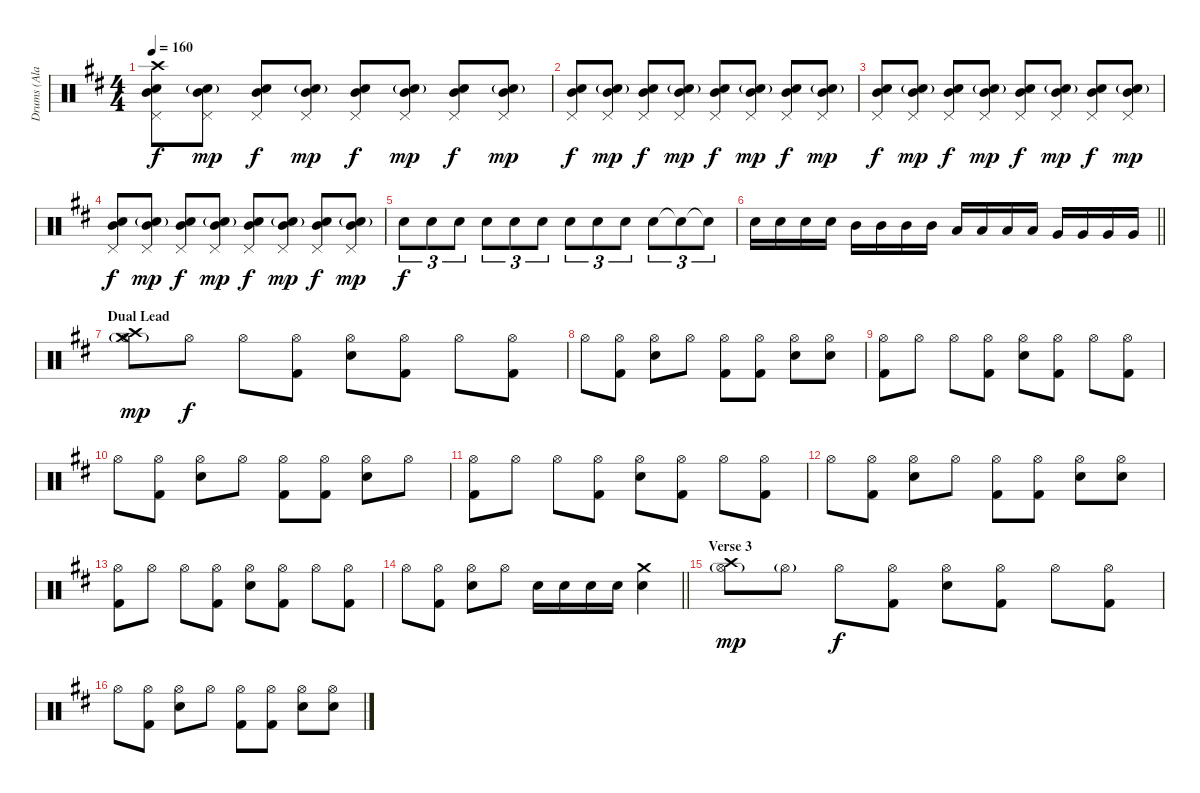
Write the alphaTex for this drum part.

\track ("Drums (Ala Burns)" "Drums (Ala") {instrument percussion}
\staff {score}
\articulation defaults
\ts (4 4)
\tempo 160
\clef neutral
\ks d
("Crash high (hit)" "Mid Tom (hit)" "Snare (hit) 2" "Pedal Hi-Hat (hit)").8{dy f} ("Mid Tom (hit)" "Snare (hit) 2"{g} "Pedal Hi-Hat (hit)").8{dy mp} ("Mid Tom (hit)" "Snare (hit) 2" "Pedal Hi-Hat (hit)").8{dy f} ("Mid Tom (hit)" "Snare (hit) 2"{g} "Pedal Hi-Hat (hit)").8{dy mp} ("Mid Tom (hit)" "Snare (hit) 2" "Pedal Hi-Hat (hit)").8{dy f} ("Mid Tom (hit)" "Snare (hit) 2"{g} "Pedal Hi-Hat (hit)").8{dy mp} ("Mid Tom (hit)" "Snare (hit) 2" "Pedal Hi-Hat (hit)").8{dy f} ("Mid Tom (hit)" "Snare (hit) 2"{g} "Pedal Hi-Hat (hit)").8{dy mp} |
("Mid Tom (hit)" "Snare (hit) 2" "Pedal Hi-Hat (hit)").8{dy f} ("Mid Tom (hit)" "Snare (hit) 2"{g} "Pedal Hi-Hat (hit)").8{dy mp} ("Mid Tom (hit)" "Snare (hit) 2" "Pedal Hi-Hat (hit)").8{dy f} ("Mid Tom (hit)" "Snare (hit) 2"{g} "Pedal Hi-Hat (hit)").8{dy mp} ("Mid Tom (hit)" "Snare (hit) 2" "Pedal Hi-Hat (hit)").8{dy f} ("Mid Tom (hit)" "Snare (hit) 2"{g} "Pedal Hi-Hat (hit)").8{dy mp} ("Mid Tom (hit)" "Snare (hit) 2" "Pedal Hi-Hat (hit)").8{dy f} ("Mid Tom (hit)" "Snare (hit) 2"{g} "Pedal Hi-Hat (hit)").8{dy mp} |
("Mid Tom (hit)" "Snare (hit) 2" "Pedal Hi-Hat (hit)").8{dy f} ("Mid Tom (hit)" "Snare (hit) 2"{g} "Pedal Hi-Hat (hit)").8{dy mp} ("Mid Tom (hit)" "Snare (hit) 2" "Pedal Hi-Hat (hit)").8{dy f} ("Mid Tom (hit)" "Snare (hit) 2"{g} "Pedal Hi-Hat (hit)").8{dy mp} ("Mid Tom (hit)" "Snare (hit) 2" "Pedal Hi-Hat (hit)").8{dy f} ("Mid Tom (hit)" "Snare (hit) 2"{g} "Pedal Hi-Hat (hit)").8{dy mp} ("Mid Tom (hit)" "Snare (hit) 2" "Pedal Hi-Hat (hit)").8{dy f} ("Mid Tom (hit)" "Snare (hit) 2"{g} "Pedal Hi-Hat (hit)").8{dy mp} |
("Mid Tom (hit)" "Snare (hit) 2" "Pedal Hi-Hat (hit)").8{dy f} ("Mid Tom (hit)" "Snare (hit) 2"{g} "Pedal Hi-Hat (hit)").8{dy mp} ("Mid Tom (hit)" "Snare (hit) 2" "Pedal Hi-Hat (hit)").8{dy f} ("Mid Tom (hit)" "Snare (hit) 2"{g} "Pedal Hi-Hat (hit)").8{dy mp} ("Mid Tom (hit)" "Snare (hit) 2" "Pedal Hi-Hat (hit)").8{dy f} ("Mid Tom (hit)" "Snare (hit) 2"{g} "Pedal Hi-Hat (hit)").8{dy mp} ("Mid Tom (hit)" "Snare (hit) 2" "Pedal Hi-Hat (hit)").8{dy f} ("Mid Tom (hit)" "Snare (hit) 2"{g} "Pedal Hi-Hat (hit)").8{dy mp} |
"Snare (hit) 2".8{tu (3 2) dy f} "Snare (hit) 2".8{tu (3 2)} "Snare (hit) 2".8{tu (3 2)} "Snare (hit) 2".8{tu (3 2)} "Snare (hit) 2".8{tu (3 2)} "Snare (hit) 2".8{tu (3 2)} "Snare (hit) 2".8{tu (3 2)} "Snare (hit) 2".8{tu (3 2)} "Snare (hit) 2".8{tu (3 2)} "Snare (hit) 2".8{tu (3 2)} "Electric Snare (hit)"{t}.8{tu (3 2)} "Electric Snare (hit)"{t}.8{tu (3 2)} |
\barLineRight lightlight "Snare (hit) 2".16 "Snare (hit) 2".16 "Snare (hit) 2".16 "Snare (hit) 2".16 "Mid Tom (hit)".16 "Mid Tom (hit)".16 "Mid Tom (hit)".16 "Mid Tom (hit)".16 "Low Tom (hit)".16 "Low Tom (hit)".16 "Low Tom (hit)".16 "Low Tom (hit)".16 "Very Low Tom (hit)".16 "Very Low Tom (hit)".16 "Very Low Tom (hit)".16 "Very Low Tom (hit)".16
|
\section ("" "Dual Lead")
("Crash medium (hit)" "Crash high (hit)" "Hi-Hat (open)"{g}).8{dy mp} "Hi-Hat (open)".8{dy f} "Hi-Hat (open)".8 ("Hi-Hat (open)" "Kick (hit) 2").8 ("Snare (hit) 2" "Hi-Hat (open)").8 ("Hi-Hat (open)" "Kick (hit) 2").8 "Hi-Hat (open)".8 ("Hi-Hat (open)" "Kick (hit) 2").8 |
"Hi-Hat (open)".8 ("Hi-Hat (open)" "Kick (hit) 2").8 ("Snare (hit) 2" "Hi-Hat (open)").8 "Hi-Hat (open)".8 ("Hi-Hat (open)" "Kick (hit) 2").8 ("Hi-Hat (open)" "Kick (hit) 2").8 ("Snare (hit) 2" "Hi-Hat (open)").8 ("Snare (hit) 2" "Hi-Hat (open)").8 |
("Hi-Hat (open)" "Kick (hit) 2").8 "Hi-Hat (open)".8 "Hi-Hat (open)".8 ("Hi-Hat (open)" "Kick (hit) 2").8 ("Snare (hit) 2" "Hi-Hat (open)").8 ("Hi-Hat (open)" "Kick (hit) 2").8 "Hi-Hat (open)".8 ("Hi-Hat (open)" "Kick (hit) 2").8 |
"Hi-Hat (open)".8 ("Hi-Hat (open)" "Kick (hit) 2").8 ("Snare (hit) 2" "Hi-Hat (open)").8 "Hi-Hat (open)".8 ("Hi-Hat (open)" "Kick (hit) 2").8 ("Hi-Hat (open)" "Kick (hit) 2").8 ("Snare (hit) 2" "Hi-Hat (open)").8 "Hi-Hat (open)".8 |
("Hi-Hat (open)" "Kick (hit) 2").8 "Hi-Hat (open)".8 "Hi-Hat (open)".8 ("Hi-Hat (open)" "Kick (hit) 2").8 ("Snare (hit) 2" "Hi-Hat (open)").8 ("Hi-Hat (open)" "Kick (hit) 2").8 "Hi-Hat (open)".8 ("Hi-Hat (open)" "Kick (hit) 2").8 |
"Hi-Hat (open)".8 ("Hi-Hat (open)" "Kick (hit) 2").8 ("Snare (hit) 2" "Hi-Hat (open)").8 "Hi-Hat (open)".8 ("Hi-Hat (open)" "Kick (hit) 2").8 ("Hi-Hat (open)" "Kick (hit) 2").8 ("Snare (hit) 2" "Hi-Hat (open)").8 ("Snare (hit) 2" "Hi-Hat (open)").8 |
("Hi-Hat (open)" "Kick (hit) 2").8 "Hi-Hat (open)".8 "Hi-Hat (open)".8 ("Hi-Hat (open)" "Kick (hit) 2").8 ("Snare (hit) 2" "Hi-Hat (open)").8 ("Hi-Hat (open)" "Kick (hit) 2").8 "Hi-Hat (open)".8 ("Hi-Hat (open)" "Kick (hit) 2").8 |
\barLineRight lightlight "Hi-Hat (open)".8
("Hi-Hat (open)" "Kick (hit) 2").8 ("Snare (hit) 2" "Hi-Hat (open)").8 "Hi-Hat (open)".8 "Snare (hit) 2".16 "Snare (hit) 2".16 "Snare (hit) 2".16 "Snare (hit) 2".16 ("Crash medium (hit)" "Snare (hit) 2").4 |
\section ("" "Verse 3")
("Crash high (hit)" "Hi-Hat (open)"{g}).8{dy mp} "Hi-Hat (open)"{g}.8 "Hi-Hat (open)".8{dy f} ("Hi-Hat (open)" "Kick (hit) 2").8 ("Snare (hit) 2" "Hi-Hat (open)").8 ("Hi-Hat (open)" "Kick (hit) 2").8 "Hi-Hat (open)".8 ("Hi-Hat (open)" "Kick (hit) 2").8 |
"Hi-Hat (open)".8 ("Hi-Hat (open)" "Kick (hit) 2").8 ("Snare (hit) 2" "Hi-Hat (open)").8 "Hi-Hat (open)".8 ("Hi-Hat (open)" "Kick (hit) 2").8 ("Hi-Hat (open)" "Kick (hit) 2").8 ("Snare (hit) 2" "Hi-Hat (open)").8 ("Snare (hit) 2" "Hi-Hat (open)").8
